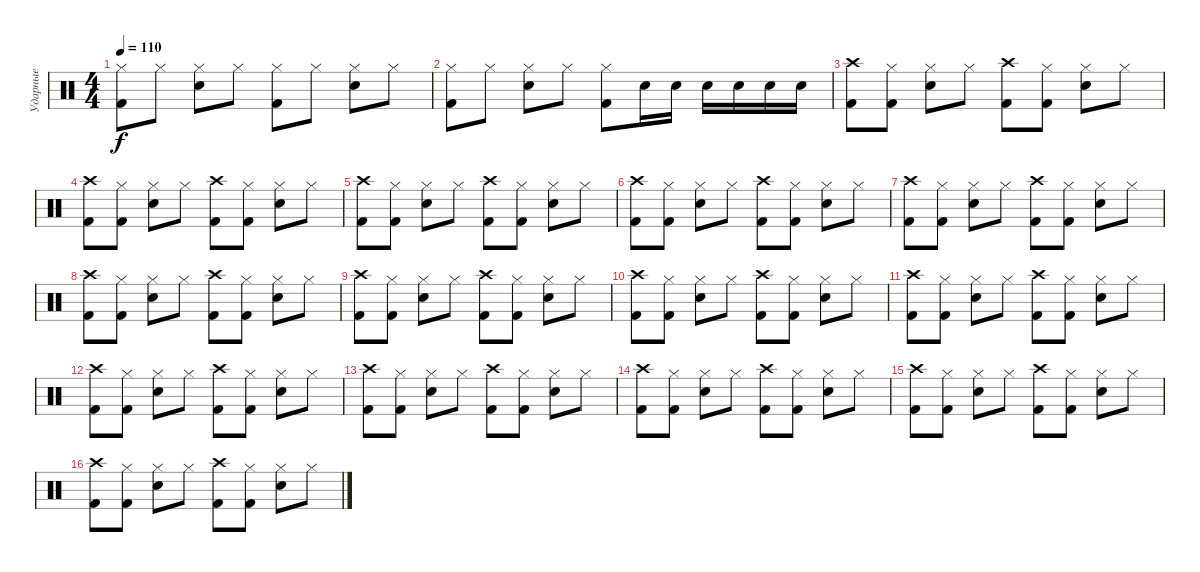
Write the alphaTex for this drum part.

\track ("Ударные" "Ударные") {instrument percussion}
\staff {score}
\articulation defaults
\ts (4 4)
\tempo 110
\clef neutral
\ks c
("Hi-Hat (closed)" "Kick (hit) 2").8{dy f} "Hi-Hat (closed)".8 ("Hi-Hat (closed)" "Snare (hit) 2").8 "Hi-Hat (closed)".8 ("Hi-Hat (closed)" "Kick (hit) 2").8 "Hi-Hat (closed)".8 ("Hi-Hat (closed)" "Snare (hit) 2").8 "Hi-Hat (closed)".8 |
("Hi-Hat (closed)" "Kick (hit) 2").8 "Hi-Hat (closed)".8 ("Hi-Hat (closed)" "Snare (hit) 2").8 "Hi-Hat (closed)".8 ("Hi-Hat (closed)" "Kick (hit) 2").8 "Snare (hit) 2".16 "Snare (hit) 2".16 "Snare (hit) 2".16 "Snare (hit) 2".16 "Snare (hit) 2".16 "Snare (hit) 2".16 |
("Crash high (hit)" "Kick (hit) 2").8 ("Hi-Hat (closed)" "Kick (hit) 2").8 ("Hi-Hat (closed)" "Snare (hit) 2").8 "Hi-Hat (closed)".8 ("Crash high (hit)" "Kick (hit) 2").8 ("Hi-Hat (closed)" "Kick (hit) 2").8 ("Hi-Hat (closed)" "Snare (hit) 2").8 "Hi-Hat (closed)".8 |
("Crash high (hit)" "Kick (hit) 2").8 ("Hi-Hat (closed)" "Kick (hit) 2").8 ("Hi-Hat (closed)" "Snare (hit) 2").8 "Hi-Hat (closed)".8 ("Crash high (hit)" "Kick (hit) 2").8 ("Hi-Hat (closed)" "Kick (hit) 2").8 ("Hi-Hat (closed)" "Snare (hit) 2").8 "Hi-Hat (closed)".8 |
("Crash high (hit)" "Kick (hit) 2").8 ("Hi-Hat (closed)" "Kick (hit) 2").8 ("Hi-Hat (closed)" "Snare (hit) 2").8 "Hi-Hat (closed)".8 ("Crash high (hit)" "Kick (hit) 2").8 ("Hi-Hat (closed)" "Kick (hit) 2").8 ("Hi-Hat (closed)" "Snare (hit) 2").8 "Hi-Hat (closed)".8 |
("Crash high (hit)" "Kick (hit) 2").8 ("Hi-Hat (closed)" "Kick (hit) 2").8 ("Hi-Hat (closed)" "Snare (hit) 2").8 "Hi-Hat (closed)".8 ("Crash high (hit)" "Kick (hit) 2").8 ("Hi-Hat (closed)" "Kick (hit) 2").8 ("Hi-Hat (closed)" "Snare (hit) 2").8 "Hi-Hat (closed)".8 |
("Crash high (hit)" "Kick (hit) 2").8 ("Hi-Hat (closed)" "Kick (hit) 2").8 ("Hi-Hat (closed)" "Snare (hit) 2").8 "Hi-Hat (closed)".8 ("Crash high (hit)" "Kick (hit) 2").8 ("Hi-Hat (closed)" "Kick (hit) 2").8 ("Hi-Hat (closed)" "Snare (hit) 2").8 "Hi-Hat (closed)".8 |
("Crash high (hit)" "Kick (hit) 2").8 ("Hi-Hat (closed)" "Kick (hit) 2").8 ("Hi-Hat (closed)" "Snare (hit) 2").8 "Hi-Hat (closed)".8 ("Crash high (hit)" "Kick (hit) 2").8 ("Hi-Hat (closed)" "Kick (hit) 2").8 ("Hi-Hat (closed)" "Snare (hit) 2").8 "Hi-Hat (closed)".8 |
("Crash high (hit)" "Kick (hit) 2").8 ("Hi-Hat (closed)" "Kick (hit) 2").8 ("Hi-Hat (closed)" "Snare (hit) 2").8 "Hi-Hat (closed)".8 ("Crash high (hit)" "Kick (hit) 2").8 ("Hi-Hat (closed)" "Kick (hit) 2").8 ("Hi-Hat (closed)" "Snare (hit) 2").8 "Hi-Hat (closed)".8 |
("Crash high (hit)" "Kick (hit) 2").8 ("Hi-Hat (closed)" "Kick (hit) 2").8 ("Hi-Hat (closed)" "Snare (hit) 2").8 "Hi-Hat (closed)".8 ("Crash high (hit)" "Kick (hit) 2").8 ("Hi-Hat (closed)" "Kick (hit) 2").8 ("Hi-Hat (closed)" "Snare (hit) 2").8 "Hi-Hat (closed)".8 |
("Crash high (hit)" "Kick (hit) 2").8 ("Hi-Hat (closed)" "Kick (hit) 2").8 ("Hi-Hat (closed)" "Snare (hit) 2").8 "Hi-Hat (closed)".8 ("Crash high (hit)" "Kick (hit) 2").8 ("Hi-Hat (closed)" "Kick (hit) 2").8 ("Hi-Hat (closed)" "Snare (hit) 2").8 "Hi-Hat (closed)".8 |
("Crash high (hit)" "Kick (hit) 2").8 ("Hi-Hat (closed)" "Kick (hit) 2").8 ("Hi-Hat (closed)" "Snare (hit) 2").8 "Hi-Hat (closed)".8 ("Crash high (hit)" "Kick (hit) 2").8 ("Hi-Hat (closed)" "Kick (hit) 2").8 ("Hi-Hat (closed)" "Snare (hit) 2").8 "Hi-Hat (closed)".8 |
("Crash high (hit)" "Kick (hit) 2").8 ("Hi-Hat (closed)" "Kick (hit) 2").8 ("Hi-Hat (closed)" "Snare (hit) 2").8 "Hi-Hat (closed)".8 ("Crash high (hit)" "Kick (hit) 2").8 ("Hi-Hat (closed)" "Kick (hit) 2").8 ("Hi-Hat (closed)" "Snare (hit) 2").8 "Hi-Hat (closed)".8 |
("Crash high (hit)" "Kick (hit) 2").8 ("Hi-Hat (closed)" "Kick (hit) 2").8 ("Hi-Hat (closed)" "Snare (hit) 2").8 "Hi-Hat (closed)".8 ("Crash high (hit)" "Kick (hit) 2").8 ("Hi-Hat (closed)" "Kick (hit) 2").8 ("Hi-Hat (closed)" "Snare (hit) 2").8 "Hi-Hat (closed)".8 |
("Crash high (hit)" "Kick (hit) 2").8 ("Hi-Hat (closed)" "Kick (hit) 2").8 ("Hi-Hat (closed)" "Snare (hit) 2").8 "Hi-Hat (closed)".8 ("Crash high (hit)" "Kick (hit) 2").8 ("Hi-Hat (closed)" "Kick (hit) 2").8 ("Hi-Hat (closed)" "Snare (hit) 2").8 "Hi-Hat (closed)".8 |
("Crash high (hit)" "Kick (hit) 2").8 ("Hi-Hat (closed)" "Kick (hit) 2").8 ("Hi-Hat (closed)" "Snare (hit) 2").8 "Hi-Hat (closed)".8 ("Crash high (hit)" "Kick (hit) 2").8 ("Hi-Hat (closed)" "Kick (hit) 2").8 ("Hi-Hat (closed)" "Snare (hit) 2").8 "Hi-Hat (closed)".8
